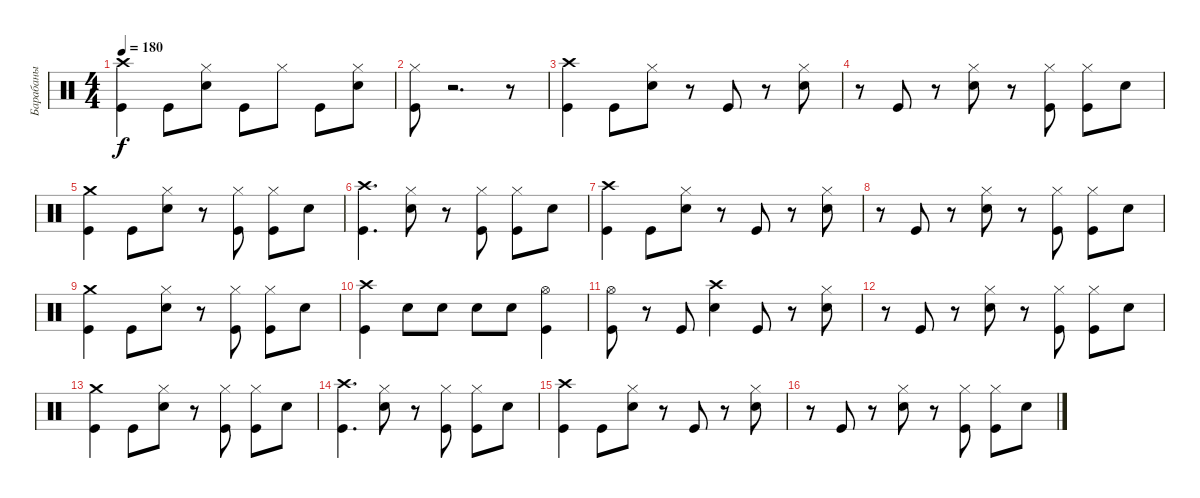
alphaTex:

\track ("Барабаны" "Барабаны") {instrument percussion}
\staff {score}
\articulation defaults
\ts (4 4)
\tempo 180
\clef neutral
\ks c
("Crash high (hit)" "Kick (hit)").4{dy f} "Kick (hit)".8 ("Electric Snare (hit)" "Hi-Hat (closed)").8 "Kick (hit)".8 "Hi-Hat (closed)".8 "Kick (hit)".8 ("Electric Snare (hit)" "Hi-Hat (closed)").8 |
("Kick (hit)" "Hi-Hat (closed)").8 r.2{d} r.8 |
("Kick (hit)" "Crash high (hit)").4 "Kick (hit)".8 ("Hi-Hat (closed)" "Electric Snare (hit)").8 r.8 "Kick (hit)".8 r.8 ("Electric Snare (hit)" "Hi-Hat (closed)").8 |
r.8 "Kick (hit)".8 r.8 ("Electric Snare (hit)" "Hi-Hat (closed)").8 r.8 ("Hi-Hat (closed)" "Kick (hit)").8 ("Kick (hit)" "Hi-Hat (closed)").8 "Electric Snare (hit)".8 |
("Crash medium (hit)" "Kick (hit)").4 "Kick (hit)".8 ("Hi-Hat (closed)" "Electric Snare (hit)").8 r.8 ("Hi-Hat (closed)" "Kick (hit)").8 ("Hi-Hat (closed)" "Kick (hit)").8 "Electric Snare (hit)".8 |
("Crash high (hit)" "Kick (hit)").4{d} ("Hi-Hat (closed)" "Electric Snare (hit)").8 r.8 ("Kick (hit)" "Hi-Hat (closed)").8 ("Kick (hit)" "Hi-Hat (closed)").8 "Electric Snare (hit)".8 |
("Crash high (hit)" "Kick (hit)").4 "Kick (hit)".8 ("Electric Snare (hit)" "Hi-Hat (closed)").8 r.8 "Kick (hit)".8 r.8 ("Electric Snare (hit)" "Hi-Hat (closed)").8 |
r.8 "Kick (hit)".8 r.8 ("Hi-Hat (closed)" "Electric Snare (hit)").8 r.8 ("Kick (hit)" "Hi-Hat (closed)").8 ("Hi-Hat (closed)" "Kick (hit)").8 "Electric Snare (hit)".8 |
("Crash medium (hit)" "Kick (hit)").4 "Kick (hit)".8 ("Hi-Hat (closed)" "Electric Snare (hit)").8 r.8 ("Kick (hit)" "Hi-Hat (closed)").8 ("Hi-Hat (closed)" "Kick (hit)").8 "Electric Snare (hit)".8 |
("Kick (hit)" "Crash high (hit)").4 "Electric Snare (hit)".8 "Electric Snare (hit)".8 "Electric Snare (hit)".8 "Electric Snare (hit)".8 ("Hi-Hat (open)" "Kick (hit)").4 |
("Hi-Hat (open)" "Kick (hit)").8 r.8 "Kick (hit)".8 ("Crash high (hit)" "Electric Snare (hit)").4 "Kick (hit)".8 r.8 ("Electric Snare (hit)" "Hi-Hat (closed)").8 |
r.8 "Kick (hit)".8 r.8 ("Hi-Hat (closed)" "Electric Snare (hit)").8 r.8 ("Kick (hit)" "Hi-Hat (closed)").8 ("Kick (hit)" "Hi-Hat (closed)").8 "Electric Snare (hit)".8 |
("Crash medium (hit)" "Kick (hit)").4 "Kick (hit)".8 ("Hi-Hat (closed)" "Electric Snare (hit)").8 r.8 ("Hi-Hat (closed)" "Kick (hit)").8 ("Hi-Hat (closed)" "Kick (hit)").8 "Electric Snare (hit)".8 |
("Kick (hit)" "Crash high (hit)").4{d} ("Hi-Hat (closed)" "Electric Snare (hit)").8 r.8 ("Kick (hit)" "Hi-Hat (closed)").8 ("Hi-Hat (closed)" "Kick (hit)").8 "Electric Snare (hit)".8 |
("Crash high (hit)" "Kick (hit)").4 "Kick (hit)".8 ("Hi-Hat (closed)" "Electric Snare (hit)").8 r.8 "Kick (hit)".8 r.8 ("Hi-Hat (closed)" "Electric Snare (hit)").8 |
r.8 "Kick (hit)".8 r.8 ("Electric Snare (hit)" "Hi-Hat (closed)").8 r.8 ("Hi-Hat (closed)" "Kick (hit)").8 ("Kick (hit)" "Hi-Hat (closed)").8 "Electric Snare (hit)".8
